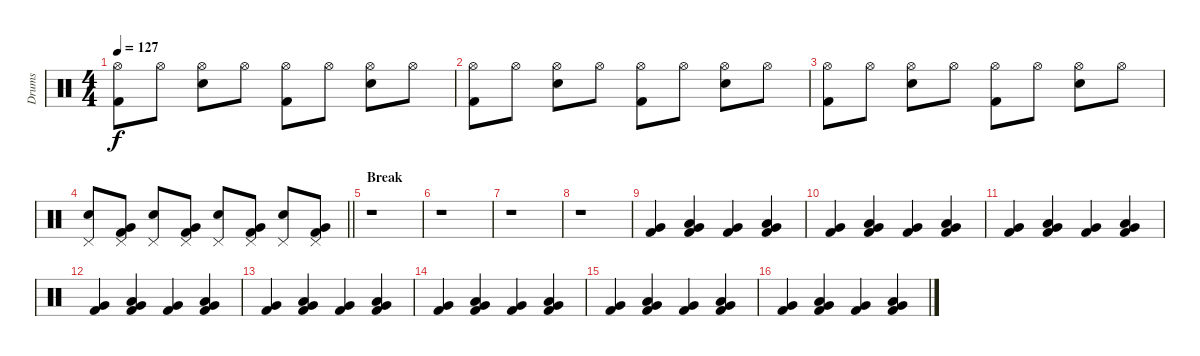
\track ("Drums" "Drums") {instrument percussion}
\staff {score}
\articulation defaults
\ts (4 4)
\tempo 127
\clef neutral
\ks c
("Hi-Hat (open)" "Kick (hit) 2").8{dy f} "Hi-Hat (open)".8 ("Hi-Hat (open)" "Electric Snare (hit)").8 "Hi-Hat (open)".8 ("Hi-Hat (open)" "Kick (hit) 2").8 "Hi-Hat (open)".8 ("Hi-Hat (open)" "Electric Snare (hit)").8 "Hi-Hat (open)".8 |
("Hi-Hat (open)" "Kick (hit) 2").8 "Hi-Hat (open)".8 ("Hi-Hat (open)" "Electric Snare (hit)").8 "Hi-Hat (open)".8 ("Hi-Hat (open)" "Kick (hit) 2").8 "Hi-Hat (open)".8 ("Hi-Hat (open)" "Electric Snare (hit)").8 "Hi-Hat (open)".8 |
("Hi-Hat (open)" "Kick (hit) 2").8 "Hi-Hat (open)".8 ("Hi-Hat (open)" "Electric Snare (hit)").8 "Hi-Hat (open)".8 ("Hi-Hat (open)" "Kick (hit) 2").8 "Hi-Hat (open)".8 ("Hi-Hat (open)" "Electric Snare (hit)").8 "Hi-Hat (open)".8 |
\barLineRight lightlight
("Pedal Hi-Hat (hit)" "Electric Snare (hit)").8 ("Pedal Hi-Hat (hit)" "Very Low Tom (hit)" "Kick (hit) 2").8 ("Pedal Hi-Hat (hit)" "Electric Snare (hit)").8 ("Pedal Hi-Hat (hit)" "Very Low Tom (hit)" "Kick (hit) 2").8 ("Pedal Hi-Hat (hit)" "Electric Snare (hit)").8 ("Pedal Hi-Hat (hit)" "Very Low Tom (hit)" "Kick (hit) 2").8 ("Pedal Hi-Hat (hit)" "Electric Snare (hit)").8 ("Pedal Hi-Hat (hit)" "Very Low Tom (hit)" "Kick (hit) 2").8 |
\section ("" "Break")
r.1 |
r.1 |
r.1 |
r.1 |
("Very Low Tom (hit)" "Kick (hit) 2").4 ("Low Floor Tom (hit)" "Very Low Tom (hit)" "Kick (hit) 2").4 ("Very Low Tom (hit)" "Kick (hit) 2").4 ("Low Floor Tom (hit)" "Very Low Tom (hit)" "Kick (hit) 2").4 |
("Very Low Tom (hit)" "Kick (hit) 2").4 ("Low Floor Tom (hit)" "Very Low Tom (hit)" "Kick (hit) 2").4 ("Very Low Tom (hit)" "Kick (hit) 2").4 ("Low Floor Tom (hit)" "Very Low Tom (hit)" "Kick (hit) 2").4 |
("Very Low Tom (hit)" "Kick (hit) 2").4 ("Low Floor Tom (hit)" "Very Low Tom (hit)" "Kick (hit) 2").4 ("Very Low Tom (hit)" "Kick (hit) 2").4 ("Low Floor Tom (hit)" "Very Low Tom (hit)" "Kick (hit) 2").4 |
("Very Low Tom (hit)" "Kick (hit) 2").4 ("Low Floor Tom (hit)" "Very Low Tom (hit)" "Kick (hit) 2").4 ("Very Low Tom (hit)" "Kick (hit) 2").4 ("Low Floor Tom (hit)" "Very Low Tom (hit)" "Kick (hit) 2").4 |
("Very Low Tom (hit)" "Kick (hit) 2").4 ("Low Floor Tom (hit)" "Very Low Tom (hit)" "Kick (hit) 2").4 ("Very Low Tom (hit)" "Kick (hit) 2").4 ("Low Floor Tom (hit)" "Very Low Tom (hit)" "Kick (hit) 2").4 |
("Very Low Tom (hit)" "Kick (hit) 2").4 ("Low Floor Tom (hit)" "Very Low Tom (hit)" "Kick (hit) 2").4 ("Very Low Tom (hit)" "Kick (hit) 2").4 ("Low Floor Tom (hit)" "Very Low Tom (hit)" "Kick (hit) 2").4 |
("Very Low Tom (hit)" "Kick (hit) 2").4 ("Low Floor Tom (hit)" "Very Low Tom (hit)" "Kick (hit) 2").4 ("Very Low Tom (hit)" "Kick (hit) 2").4 ("Low Floor Tom (hit)" "Very Low Tom (hit)" "Kick (hit) 2").4 |
("Very Low Tom (hit)" "Kick (hit) 2").4 ("Low Floor Tom (hit)" "Very Low Tom (hit)" "Kick (hit) 2").4 ("Very Low Tom (hit)" "Kick (hit) 2").4 ("Low Floor Tom (hit)" "Very Low Tom (hit)" "Kick (hit) 2").4
